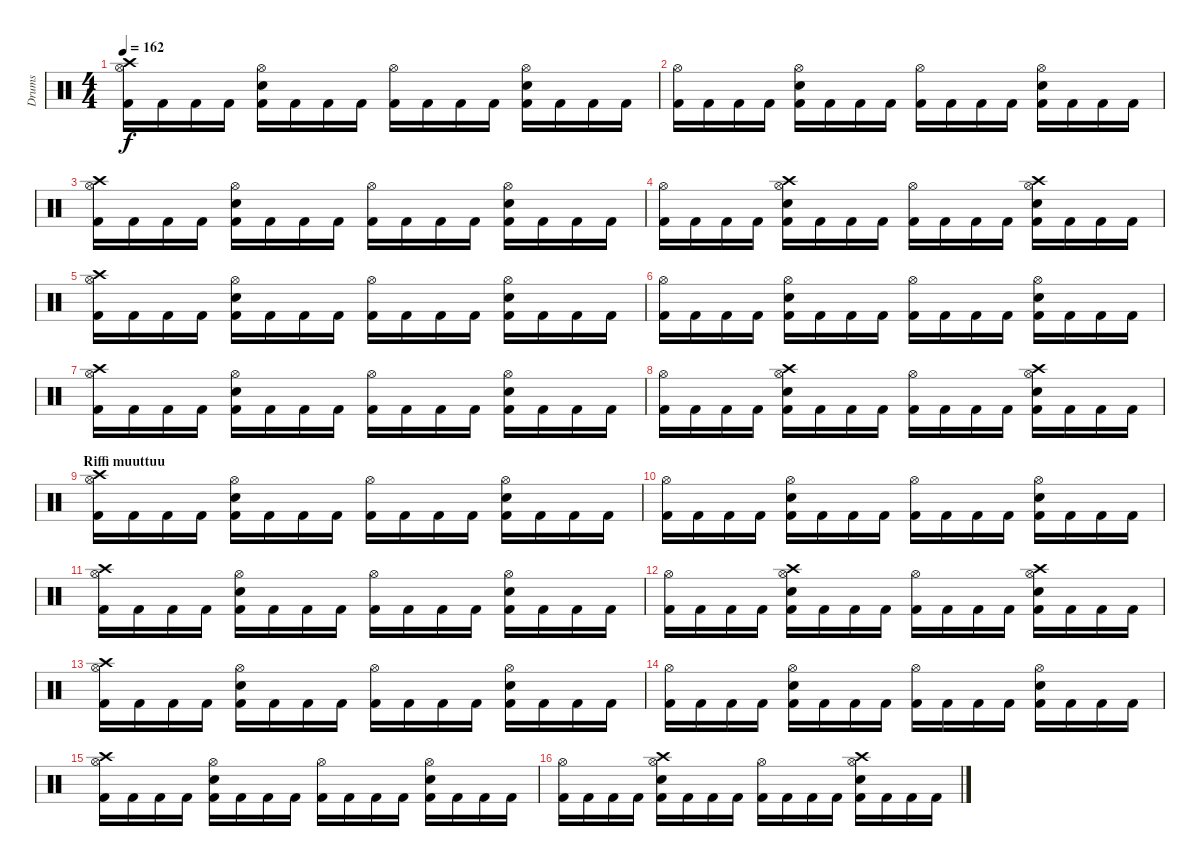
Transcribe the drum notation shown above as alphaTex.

\track ("Drums" "Drums") {instrument percussion}
\staff {score}
\articulation defaults
\ts (4 4)
\tempo 162
\clef neutral
\ks c
("Hi-Hat (open)" "Kick (hit) 2" "Crash high (hit)").16{dy f} "Kick (hit) 2".16 "Kick (hit) 2".16 "Kick (hit) 2".16 ("Hi-Hat (open)" "Electric Snare (hit)" "Kick (hit) 2").16 "Kick (hit) 2".16 "Kick (hit) 2".16 "Kick (hit) 2".16 ("Hi-Hat (open)" "Kick (hit) 2").16 "Kick (hit) 2".16 "Kick (hit) 2".16 "Kick (hit) 2".16 ("Hi-Hat (open)" "Electric Snare (hit)" "Kick (hit) 2").16 "Kick (hit) 2".16 "Kick (hit) 2".16 "Kick (hit) 2".16 |
("Hi-Hat (open)" "Kick (hit) 2").16 "Kick (hit) 2".16 "Kick (hit) 2".16 "Kick (hit) 2".16 ("Hi-Hat (open)" "Electric Snare (hit)" "Kick (hit) 2").16 "Kick (hit) 2".16 "Kick (hit) 2".16 "Kick (hit) 2".16 ("Hi-Hat (open)" "Kick (hit) 2").16 "Kick (hit) 2".16 "Kick (hit) 2".16 "Kick (hit) 2".16 ("Hi-Hat (open)" "Electric Snare (hit)" "Kick (hit) 2").16 "Kick (hit) 2".16 "Kick (hit) 2".16 "Kick (hit) 2".16 |
("Hi-Hat (open)" "Kick (hit) 2" "Crash high (hit)").16 "Kick (hit) 2".16 "Kick (hit) 2".16 "Kick (hit) 2".16 ("Hi-Hat (open)" "Electric Snare (hit)" "Kick (hit) 2").16 "Kick (hit) 2".16 "Kick (hit) 2".16 "Kick (hit) 2".16 ("Hi-Hat (open)" "Kick (hit) 2").16 "Kick (hit) 2".16 "Kick (hit) 2".16 "Kick (hit) 2".16 ("Hi-Hat (open)" "Electric Snare (hit)" "Kick (hit) 2").16 "Kick (hit) 2".16 "Kick (hit) 2".16 "Kick (hit) 2".16 |
("Hi-Hat (open)" "Kick (hit) 2").16 "Kick (hit) 2".16 "Kick (hit) 2".16 "Kick (hit) 2".16 ("Crash high (hit)" "Hi-Hat (open)" "Electric Snare (hit)" "Kick (hit) 2").16 "Kick (hit) 2".16 "Kick (hit) 2".16 "Kick (hit) 2".16 ("Hi-Hat (open)" "Kick (hit) 2").16 "Kick (hit) 2".16 "Kick (hit) 2".16 "Kick (hit) 2".16 ("Crash high (hit)" "Hi-Hat (open)" "Electric Snare (hit)" "Kick (hit) 2").16 "Kick (hit) 2".16 "Kick (hit) 2".16 "Kick (hit) 2".16 |
("Hi-Hat (open)" "Kick (hit) 2" "Crash high (hit)").16 "Kick (hit) 2".16 "Kick (hit) 2".16 "Kick (hit) 2".16 ("Hi-Hat (open)" "Electric Snare (hit)" "Kick (hit) 2").16 "Kick (hit) 2".16 "Kick (hit) 2".16 "Kick (hit) 2".16 ("Hi-Hat (open)" "Kick (hit) 2").16 "Kick (hit) 2".16 "Kick (hit) 2".16 "Kick (hit) 2".16 ("Hi-Hat (open)" "Electric Snare (hit)" "Kick (hit) 2").16 "Kick (hit) 2".16 "Kick (hit) 2".16 "Kick (hit) 2".16 |
("Hi-Hat (open)" "Kick (hit) 2").16 "Kick (hit) 2".16 "Kick (hit) 2".16 "Kick (hit) 2".16 ("Hi-Hat (open)" "Electric Snare (hit)" "Kick (hit) 2").16 "Kick (hit) 2".16 "Kick (hit) 2".16 "Kick (hit) 2".16 ("Hi-Hat (open)" "Kick (hit) 2").16 "Kick (hit) 2".16 "Kick (hit) 2".16 "Kick (hit) 2".16 ("Hi-Hat (open)" "Electric Snare (hit)" "Kick (hit) 2").16 "Kick (hit) 2".16 "Kick (hit) 2".16 "Kick (hit) 2".16 |
("Hi-Hat (open)" "Kick (hit) 2" "Crash high (hit)").16 "Kick (hit) 2".16 "Kick (hit) 2".16 "Kick (hit) 2".16 ("Hi-Hat (open)" "Electric Snare (hit)" "Kick (hit) 2").16 "Kick (hit) 2".16 "Kick (hit) 2".16 "Kick (hit) 2".16 ("Hi-Hat (open)" "Kick (hit) 2").16 "Kick (hit) 2".16 "Kick (hit) 2".16 "Kick (hit) 2".16 ("Hi-Hat (open)" "Electric Snare (hit)" "Kick (hit) 2").16 "Kick (hit) 2".16 "Kick (hit) 2".16 "Kick (hit) 2".16 |
("Hi-Hat (open)" "Kick (hit) 2").16 "Kick (hit) 2".16 "Kick (hit) 2".16 "Kick (hit) 2".16 ("Crash high (hit)" "Hi-Hat (open)" "Electric Snare (hit)" "Kick (hit) 2").16 "Kick (hit) 2".16 "Kick (hit) 2".16 "Kick (hit) 2".16 ("Hi-Hat (open)" "Kick (hit) 2").16 "Kick (hit) 2".16 "Kick (hit) 2".16 "Kick (hit) 2".16 ("Crash high (hit)" "Hi-Hat (open)" "Electric Snare (hit)" "Kick (hit) 2").16 "Kick (hit) 2".16 "Kick (hit) 2".16 "Kick (hit) 2".16 |
\section ("" "Riffi muuttuu")
("Hi-Hat (open)" "Kick (hit) 2" "Crash high (hit)").16 "Kick (hit) 2".16 "Kick (hit) 2".16 "Kick (hit) 2".16 ("Hi-Hat (open)" "Electric Snare (hit)" "Kick (hit) 2").16 "Kick (hit) 2".16 "Kick (hit) 2".16 "Kick (hit) 2".16 ("Hi-Hat (open)" "Kick (hit) 2").16 "Kick (hit) 2".16 "Kick (hit) 2".16 "Kick (hit) 2".16 ("Hi-Hat (open)" "Electric Snare (hit)" "Kick (hit) 2").16 "Kick (hit) 2".16 "Kick (hit) 2".16 "Kick (hit) 2".16 |
("Hi-Hat (open)" "Kick (hit) 2").16 "Kick (hit) 2".16 "Kick (hit) 2".16 "Kick (hit) 2".16 ("Hi-Hat (open)" "Electric Snare (hit)" "Kick (hit) 2").16 "Kick (hit) 2".16 "Kick (hit) 2".16 "Kick (hit) 2".16 ("Hi-Hat (open)" "Kick (hit) 2").16 "Kick (hit) 2".16 "Kick (hit) 2".16 "Kick (hit) 2".16 ("Hi-Hat (open)" "Electric Snare (hit)" "Kick (hit) 2").16 "Kick (hit) 2".16 "Kick (hit) 2".16 "Kick (hit) 2".16 |
("Hi-Hat (open)" "Kick (hit) 2" "Crash high (hit)").16 "Kick (hit) 2".16 "Kick (hit) 2".16 "Kick (hit) 2".16 ("Hi-Hat (open)" "Electric Snare (hit)" "Kick (hit) 2").16 "Kick (hit) 2".16 "Kick (hit) 2".16 "Kick (hit) 2".16 ("Hi-Hat (open)" "Kick (hit) 2").16 "Kick (hit) 2".16 "Kick (hit) 2".16 "Kick (hit) 2".16 ("Hi-Hat (open)" "Electric Snare (hit)" "Kick (hit) 2").16 "Kick (hit) 2".16 "Kick (hit) 2".16 "Kick (hit) 2".16 |
("Hi-Hat (open)" "Kick (hit) 2").16 "Kick (hit) 2".16 "Kick (hit) 2".16 "Kick (hit) 2".16 ("Crash high (hit)" "Hi-Hat (open)" "Electric Snare (hit)" "Kick (hit) 2").16 "Kick (hit) 2".16 "Kick (hit) 2".16 "Kick (hit) 2".16 ("Hi-Hat (open)" "Kick (hit) 2").16 "Kick (hit) 2".16 "Kick (hit) 2".16 "Kick (hit) 2".16 ("Crash high (hit)" "Hi-Hat (open)" "Electric Snare (hit)" "Kick (hit) 2").16 "Kick (hit) 2".16 "Kick (hit) 2".16 "Kick (hit) 2".16 |
("Hi-Hat (open)" "Kick (hit) 2" "Crash high (hit)").16 "Kick (hit) 2".16 "Kick (hit) 2".16 "Kick (hit) 2".16 ("Hi-Hat (open)" "Electric Snare (hit)" "Kick (hit) 2").16 "Kick (hit) 2".16 "Kick (hit) 2".16 "Kick (hit) 2".16 ("Hi-Hat (open)" "Kick (hit) 2").16 "Kick (hit) 2".16 "Kick (hit) 2".16 "Kick (hit) 2".16 ("Hi-Hat (open)" "Electric Snare (hit)" "Kick (hit) 2").16 "Kick (hit) 2".16 "Kick (hit) 2".16 "Kick (hit) 2".16 |
("Hi-Hat (open)" "Kick (hit) 2").16 "Kick (hit) 2".16 "Kick (hit) 2".16 "Kick (hit) 2".16 ("Hi-Hat (open)" "Electric Snare (hit)" "Kick (hit) 2").16 "Kick (hit) 2".16 "Kick (hit) 2".16 "Kick (hit) 2".16 ("Hi-Hat (open)" "Kick (hit) 2").16 "Kick (hit) 2".16 "Kick (hit) 2".16 "Kick (hit) 2".16 ("Hi-Hat (open)" "Electric Snare (hit)" "Kick (hit) 2").16 "Kick (hit) 2".16 "Kick (hit) 2".16 "Kick (hit) 2".16 |
("Hi-Hat (open)" "Kick (hit) 2" "Crash high (hit)").16 "Kick (hit) 2".16 "Kick (hit) 2".16 "Kick (hit) 2".16 ("Hi-Hat (open)" "Electric Snare (hit)" "Kick (hit) 2").16 "Kick (hit) 2".16 "Kick (hit) 2".16 "Kick (hit) 2".16 ("Hi-Hat (open)" "Kick (hit) 2").16 "Kick (hit) 2".16 "Kick (hit) 2".16 "Kick (hit) 2".16 ("Hi-Hat (open)" "Electric Snare (hit)" "Kick (hit) 2").16 "Kick (hit) 2".16 "Kick (hit) 2".16 "Kick (hit) 2".16 |
("Hi-Hat (open)" "Kick (hit) 2").16 "Kick (hit) 2".16 "Kick (hit) 2".16 "Kick (hit) 2".16 ("Crash high (hit)" "Hi-Hat (open)" "Electric Snare (hit)" "Kick (hit) 2").16 "Kick (hit) 2".16 "Kick (hit) 2".16 "Kick (hit) 2".16 ("Hi-Hat (open)" "Kick (hit) 2").16 "Kick (hit) 2".16 "Kick (hit) 2".16 "Kick (hit) 2".16 ("Crash high (hit)" "Hi-Hat (open)" "Electric Snare (hit)" "Kick (hit) 2").16 "Kick (hit) 2".16 "Kick (hit) 2".16 "Kick (hit) 2".16
